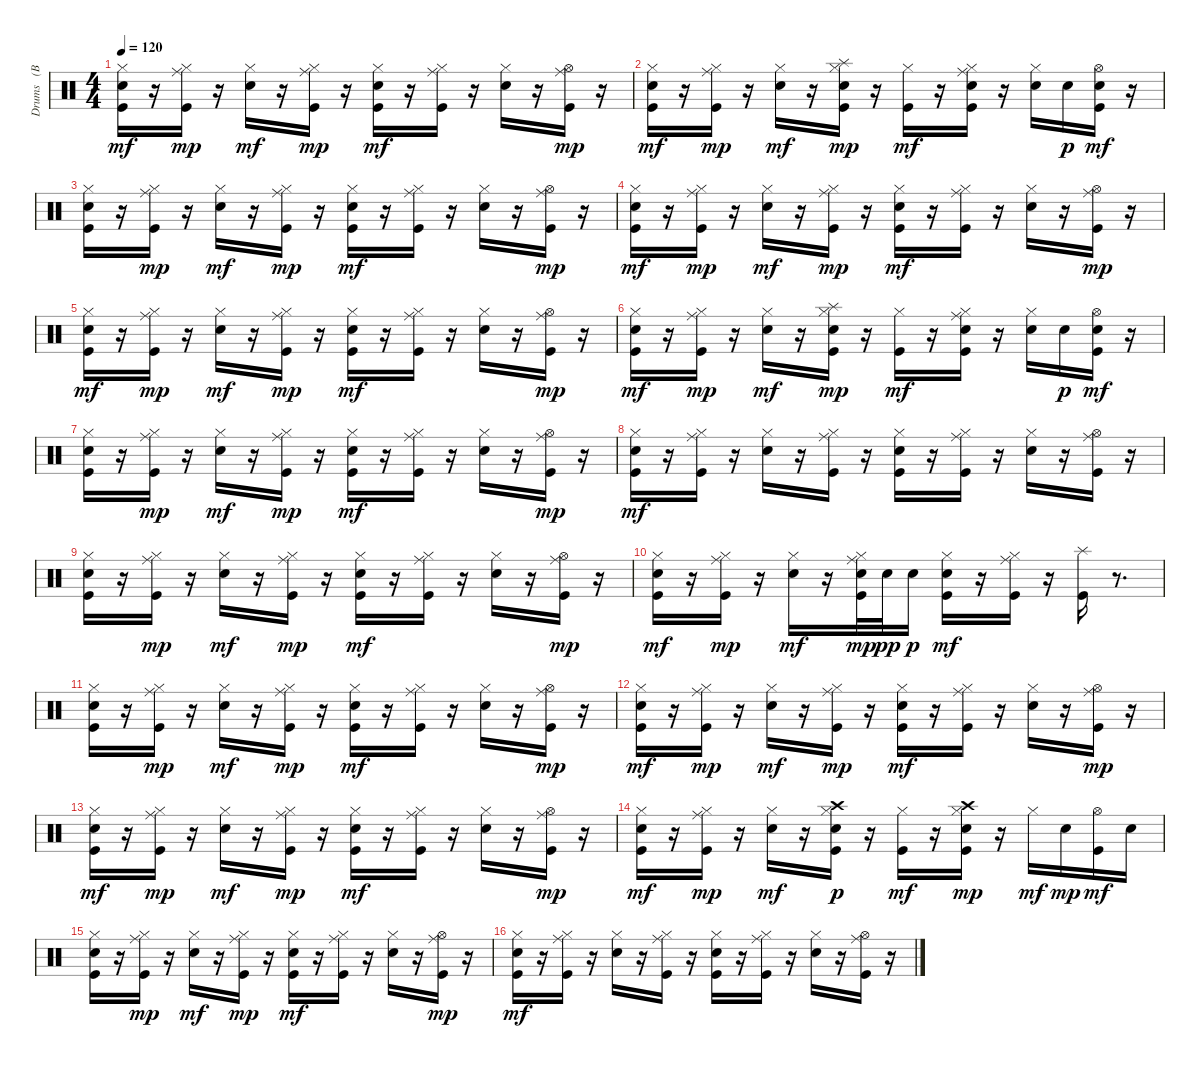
\track ("Drums   (BB)" "Drums   (B") {instrument percussion}
\staff {score}
\articulation defaults
\ts (4 4)
\tempo 120
\clef neutral
\ks c
("Kick (hit)" "Electric Snare (hit)" "Hi-Hat (closed)").16{dy mf} r.16 ("Kick (hit)" "Hi-Hat (closed)" "Ride (middle)").16{dy mp} r.16 ("Electric Snare (hit)" "Hi-Hat (closed)").16{dy mf} r.16 ("Kick (hit)" "Hi-Hat (closed)" "Ride (middle)").16{dy mp} r.16 ("Kick (hit)" "Electric Snare (hit)" "Hi-Hat (closed)").16{dy mf} r.16 ("Kick (hit)" "Hi-Hat (closed)" "Ride (middle)").16 r.16 ("Electric Snare (hit)" "Hi-Hat (closed)").16 r.16 ("Kick (hit)" "Hi-Hat (open)" "Ride (middle)").16{dy mp} r.16 |
("Kick (hit)" "Electric Snare (hit)" "Hi-Hat (closed)").16{dy mf} r.16 ("Kick (hit)" "Hi-Hat (closed)" "Ride (middle)").16{dy mp} r.16 ("Electric Snare (hit)" "Hi-Hat (closed)").16{dy mf} r.16 ("Kick (hit)" "Electric Snare (hit)" "Hi-Hat (closed)" "Splash (hit)").16{dy mp} r.16 ("Kick (hit)" "Hi-Hat (closed)").16{dy mf} r.16 ("Kick (hit)" "Electric Snare (hit)" "Hi-Hat (closed)" "Ride (middle)").16 r.16 ("Electric Snare (hit)" "Hi-Hat (closed)").16 "Electric Snare (hit)".16{dy p} ("Kick (hit)" "Electric Snare (hit)" "Hi-Hat (open)").16{dy mf} r.16 |
("Kick (hit)" "Electric Snare (hit)" "Hi-Hat (closed)").16 r.16 ("Kick (hit)" "Hi-Hat (closed)" "Ride (middle)").16{dy mp} r.16 ("Electric Snare (hit)" "Hi-Hat (closed)").16{dy mf} r.16 ("Kick (hit)" "Hi-Hat (closed)" "Ride (middle)").16{dy mp} r.16 ("Kick (hit)" "Electric Snare (hit)" "Hi-Hat (closed)").16{dy mf} r.16 ("Kick (hit)" "Hi-Hat (closed)" "Ride (middle)").16 r.16 ("Electric Snare (hit)" "Hi-Hat (closed)").16 r.16 ("Kick (hit)" "Hi-Hat (open)" "Ride (middle)").16{dy mp} r.16 |
("Kick (hit)" "Electric Snare (hit)" "Hi-Hat (closed)").16{dy mf} r.16 ("Kick (hit)" "Hi-Hat (closed)" "Ride (middle)").16{dy mp} r.16 ("Electric Snare (hit)" "Hi-Hat (closed)").16{dy mf} r.16 ("Kick (hit)" "Hi-Hat (closed)" "Ride (middle)").16{dy mp} r.16 ("Kick (hit)" "Electric Snare (hit)" "Hi-Hat (closed)").16{dy mf} r.16 ("Kick (hit)" "Hi-Hat (closed)" "Ride (middle)").16 r.16 ("Electric Snare (hit)" "Hi-Hat (closed)").16 r.16 ("Kick (hit)" "Hi-Hat (open)" "Ride (middle)").16{dy mp} r.16 |
("Kick (hit)" "Electric Snare (hit)" "Hi-Hat (closed)").16{dy mf} r.16 ("Kick (hit)" "Hi-Hat (closed)" "Ride (middle)").16{dy mp} r.16 ("Electric Snare (hit)" "Hi-Hat (closed)").16{dy mf} r.16 ("Kick (hit)" "Hi-Hat (closed)" "Ride (middle)").16{dy mp} r.16 ("Kick (hit)" "Electric Snare (hit)" "Hi-Hat (closed)").16{dy mf} r.16 ("Kick (hit)" "Hi-Hat (closed)" "Ride (middle)").16 r.16 ("Electric Snare (hit)" "Hi-Hat (closed)").16 r.16 ("Kick (hit)" "Hi-Hat (open)" "Ride (middle)").16{dy mp} r.16 |
("Kick (hit)" "Electric Snare (hit)" "Hi-Hat (closed)").16{dy mf} r.16 ("Kick (hit)" "Hi-Hat (closed)" "Ride (middle)").16{dy mp} r.16 ("Electric Snare (hit)" "Hi-Hat (closed)").16{dy mf} r.16 ("Kick (hit)" "Electric Snare (hit)" "Hi-Hat (closed)" "Splash (hit)").16{dy mp} r.16 ("Kick (hit)" "Hi-Hat (closed)").16{dy mf} r.16 ("Kick (hit)" "Electric Snare (hit)" "Hi-Hat (closed)" "Ride (middle)").16 r.16 ("Electric Snare (hit)" "Hi-Hat (closed)").16 "Electric Snare (hit)".16{dy p} ("Kick (hit)" "Electric Snare (hit)" "Hi-Hat (open)").16{dy mf} r.16 |
("Kick (hit)" "Electric Snare (hit)" "Hi-Hat (closed)").16 r.16 ("Kick (hit)" "Hi-Hat (closed)" "Ride (middle)").16{dy mp} r.16 ("Electric Snare (hit)" "Hi-Hat (closed)").16{dy mf} r.16 ("Kick (hit)" "Hi-Hat (closed)" "Ride (middle)").16{dy mp} r.16 ("Kick (hit)" "Electric Snare (hit)" "Hi-Hat (closed)").16{dy mf} r.16 ("Kick (hit)" "Hi-Hat (closed)" "Ride (middle)").16 r.16 ("Electric Snare (hit)" "Hi-Hat (closed)").16 r.16 ("Kick (hit)" "Hi-Hat (open)" "Ride (middle)").16{dy mp} r.16 |
("Kick (hit)" "Electric Snare (hit)" "Hi-Hat (closed)").16{dy mf} r.16 ("Kick (hit)" "Hi-Hat (closed)" "Ride (middle)").16 r.16 ("Electric Snare (hit)" "Hi-Hat (closed)").16 r.16 ("Kick (hit)" "Hi-Hat (closed)" "Ride (middle)").16 r.16 ("Kick (hit)" "Electric Snare (hit)" "Hi-Hat (closed)").16 r.16 ("Kick (hit)" "Hi-Hat (closed)" "Ride (middle)").16 r.16 ("Electric Snare (hit)" "Hi-Hat (closed)").16 r.16 ("Kick (hit)" "Hi-Hat (open)" "Ride (middle)").16 r.16 |
("Kick (hit)" "Electric Snare (hit)" "Hi-Hat (closed)").16 r.16 ("Kick (hit)" "Hi-Hat (closed)" "Ride (middle)").16{dy mp} r.16 ("Electric Snare (hit)" "Hi-Hat (closed)").16{dy mf} r.16 ("Kick (hit)" "Hi-Hat (closed)" "Ride (middle)").16{dy mp} r.16 ("Kick (hit)" "Electric Snare (hit)" "Hi-Hat (closed)").16{dy mf} r.16 ("Kick (hit)" "Hi-Hat (closed)" "Ride (middle)").16 r.16 ("Electric Snare (hit)" "Hi-Hat (closed)").16 r.16 ("Kick (hit)" "Hi-Hat (open)" "Ride (middle)").16{dy mp} r.16 |
("Kick (hit)" "Electric Snare (hit)" "Hi-Hat (closed)").16{dy mf} r.16 ("Kick (hit)" "Hi-Hat (closed)" "Ride (middle)").16{dy mp} r.16 ("Electric Snare (hit)" "Hi-Hat (closed)").16{dy mf} r.16 ("Kick (hit)" "Electric Snare (hit)" "Hi-Hat (closed)" "Ride (middle)").32{dy mp} "Electric Snare (hit)".32{dy pp} "Electric Snare (hit)".16{dy p} ("Kick (hit)" "Electric Snare (hit)" "Hi-Hat (closed)").16{dy mf} r.16 ("Kick (hit)" "Hi-Hat (closed)" "Ride (middle)").16 r.16 ("Kick (hit)" "Splash (hit)").16 r.8{d} |
("Kick (hit)" "Electric Snare (hit)" "Hi-Hat (closed)").16 r.16 ("Kick (hit)" "Hi-Hat (closed)" "Ride (middle)").16{dy mp} r.16 ("Electric Snare (hit)" "Hi-Hat (closed)").16{dy mf} r.16 ("Kick (hit)" "Hi-Hat (closed)" "Ride (middle)").16{dy mp} r.16 ("Kick (hit)" "Electric Snare (hit)" "Hi-Hat (closed)").16{dy mf} r.16 ("Kick (hit)" "Hi-Hat (closed)" "Ride (middle)").16 r.16 ("Electric Snare (hit)" "Hi-Hat (closed)").16 r.16 ("Kick (hit)" "Hi-Hat (open)" "Ride (middle)").16{dy mp} r.16 |
("Kick (hit)" "Electric Snare (hit)" "Hi-Hat (closed)").16{dy mf} r.16 ("Kick (hit)" "Hi-Hat (closed)" "Ride (middle)").16{dy mp} r.16 ("Electric Snare (hit)" "Hi-Hat (closed)").16{dy mf} r.16 ("Kick (hit)" "Hi-Hat (closed)" "Ride (middle)").16{dy mp} r.16 ("Kick (hit)" "Electric Snare (hit)" "Hi-Hat (closed)").16{dy mf} r.16 ("Kick (hit)" "Hi-Hat (closed)" "Ride (middle)").16 r.16 ("Electric Snare (hit)" "Hi-Hat (closed)").16 r.16 ("Kick (hit)" "Hi-Hat (open)" "Ride (middle)").16{dy mp} r.16 |
("Kick (hit)" "Electric Snare (hit)" "Hi-Hat (closed)").16{dy mf} r.16 ("Kick (hit)" "Hi-Hat (closed)" "Ride (middle)").16{dy mp} r.16 ("Electric Snare (hit)" "Hi-Hat (closed)").16{dy mf} r.16 ("Kick (hit)" "Hi-Hat (closed)" "Ride (middle)").16{dy mp} r.16 ("Kick (hit)" "Electric Snare (hit)" "Hi-Hat (closed)").16{dy mf} r.16 ("Kick (hit)" "Hi-Hat (closed)" "Ride (middle)").16 r.16 ("Electric Snare (hit)" "Hi-Hat (closed)").16 r.16 ("Kick (hit)" "Hi-Hat (open)" "Ride (middle)").16{dy mp} r.16 |
("Kick (hit)" "Electric Snare (hit)" "Hi-Hat (closed)").16{dy mf} r.16 ("Kick (hit)" "Hi-Hat (closed)" "Ride (middle)").16{dy mp} r.16 ("Electric Snare (hit)" "Hi-Hat (closed)").16{dy mf} r.16 ("Kick (hit)" "Electric Snare (hit)" "Hi-Hat (closed)" "Crash high (hit)").16{dy p} r.16 ("Kick (hit)" "Hi-Hat (closed)").16{dy mf} r.16 ("Kick (hit)" "Electric Snare (hit)" "Hi-Hat (closed)" "Crash high (hit)").16{dy mp} r.16 "Hi-Hat (closed)".16{dy mf} "Electric Snare (hit)".16{dy mp} ("Kick (hit)" "Hi-Hat (open)").16{dy mf} "Electric Snare (hit)".16 |
("Kick (hit)" "Electric Snare (hit)" "Hi-Hat (closed)").16 r.16 ("Kick (hit)" "Hi-Hat (closed)" "Ride (middle)").16{dy mp} r.16 ("Electric Snare (hit)" "Hi-Hat (closed)").16{dy mf} r.16 ("Kick (hit)" "Hi-Hat (closed)" "Ride (middle)").16{dy mp} r.16 ("Kick (hit)" "Electric Snare (hit)" "Hi-Hat (closed)").16{dy mf} r.16 ("Kick (hit)" "Hi-Hat (closed)" "Ride (middle)").16 r.16 ("Electric Snare (hit)" "Hi-Hat (closed)").16 r.16 ("Kick (hit)" "Hi-Hat (open)" "Ride (middle)").16{dy mp} r.16 |
("Kick (hit)" "Electric Snare (hit)" "Hi-Hat (closed)").16{dy mf} r.16 ("Kick (hit)" "Hi-Hat (closed)" "Ride (middle)").16 r.16 ("Electric Snare (hit)" "Hi-Hat (closed)").16 r.16 ("Kick (hit)" "Hi-Hat (closed)" "Ride (middle)").16 r.16 ("Kick (hit)" "Electric Snare (hit)" "Hi-Hat (closed)").16 r.16 ("Kick (hit)" "Hi-Hat (closed)" "Ride (middle)").16 r.16 ("Electric Snare (hit)" "Hi-Hat (closed)").16 r.16 ("Kick (hit)" "Hi-Hat (open)" "Ride (middle)").16 r.16
